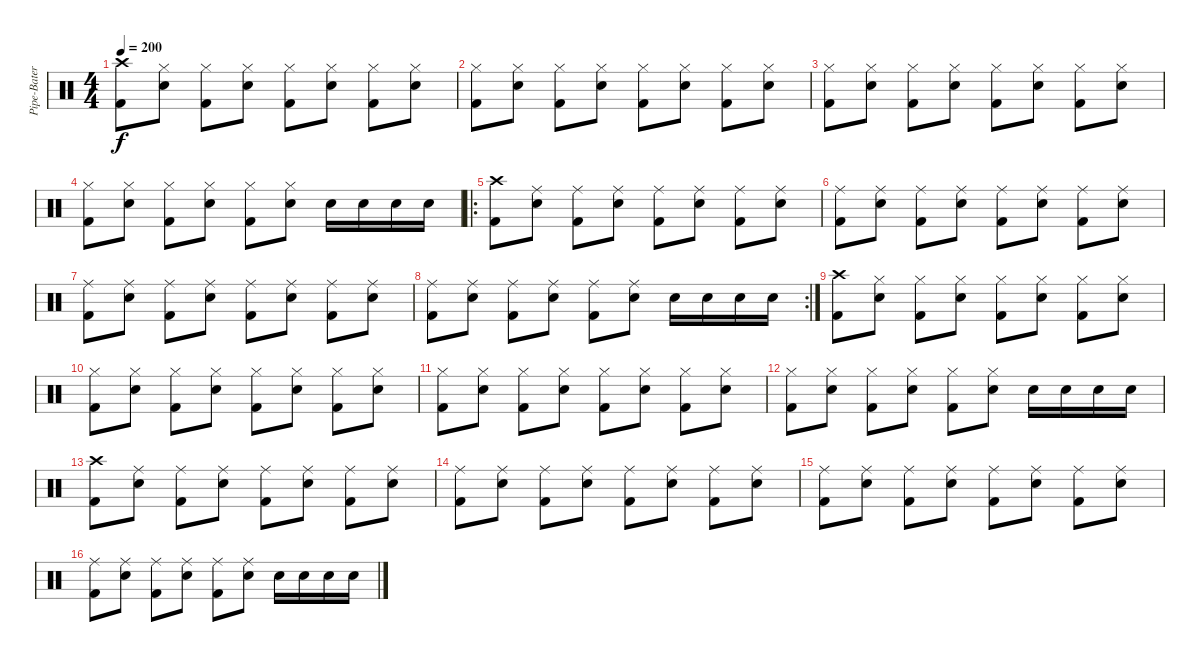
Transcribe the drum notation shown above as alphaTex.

\track ("Pipe-Bateria" "Pipe-Bater") {instrument percussion}
\staff {score}
\articulation defaults
\ts (4 4)
\tempo 200
\clef neutral
\ks c
("Kick (hit) 2" "Crash high (hit)").8{dy f} ("Snare (hit) 2" "Hi-Hat (closed)").8 ("Kick (hit) 2" "Hi-Hat (closed)").8 ("Snare (hit) 2" "Hi-Hat (closed)").8 ("Kick (hit) 2" "Hi-Hat (closed)").8 ("Snare (hit) 2" "Hi-Hat (closed)").8 ("Kick (hit) 2" "Hi-Hat (closed)").8 ("Snare (hit) 2" "Hi-Hat (closed)").8 |
("Kick (hit) 2" "Hi-Hat (closed)").8 ("Snare (hit) 2" "Hi-Hat (closed)").8 ("Kick (hit) 2" "Hi-Hat (closed)").8 ("Snare (hit) 2" "Hi-Hat (closed)").8 ("Kick (hit) 2" "Hi-Hat (closed)").8 ("Snare (hit) 2" "Hi-Hat (closed)").8 ("Kick (hit) 2" "Hi-Hat (closed)").8 ("Snare (hit) 2" "Hi-Hat (closed)").8 |
("Kick (hit) 2" "Hi-Hat (closed)").8 ("Snare (hit) 2" "Hi-Hat (closed)").8 ("Kick (hit) 2" "Hi-Hat (closed)").8 ("Snare (hit) 2" "Hi-Hat (closed)").8 ("Kick (hit) 2" "Hi-Hat (closed)").8 ("Snare (hit) 2" "Hi-Hat (closed)").8 ("Kick (hit) 2" "Hi-Hat (closed)").8 ("Snare (hit) 2" "Hi-Hat (closed)").8 |
("Kick (hit) 2" "Hi-Hat (closed)").8 ("Snare (hit) 2" "Hi-Hat (closed)").8 ("Kick (hit) 2" "Hi-Hat (closed)").8 ("Snare (hit) 2" "Hi-Hat (closed)").8 ("Kick (hit) 2" "Hi-Hat (closed)").8 ("Snare (hit) 2" "Hi-Hat (closed)").8 "Snare (hit) 2".16 "Snare (hit) 2".16 "Snare (hit) 2".16 "Snare (hit) 2".16 |
\ro
("Kick (hit) 2" "Crash high (hit)").8 ("Snare (hit) 2" "Ride (middle)").8 ("Kick (hit) 2" "Ride (middle)").8 ("Snare (hit) 2" "Ride (middle)").8 ("Kick (hit) 2" "Ride (middle)").8 ("Snare (hit) 2" "Ride (middle)").8 ("Kick (hit) 2" "Ride (middle)").8 ("Snare (hit) 2" "Ride (middle)").8 |
("Kick (hit) 2" "Ride (middle)").8 ("Snare (hit) 2" "Ride (middle)").8 ("Kick (hit) 2" "Ride (middle)").8 ("Snare (hit) 2" "Ride (middle)").8 ("Kick (hit) 2" "Ride (middle)").8 ("Snare (hit) 2" "Ride (middle)").8 ("Kick (hit) 2" "Ride (middle)").8 ("Snare (hit) 2" "Ride (middle)").8 |
("Kick (hit) 2" "Ride (middle)").8 ("Snare (hit) 2" "Ride (middle)").8 ("Kick (hit) 2" "Ride (middle)").8 ("Snare (hit) 2" "Ride (middle)").8 ("Kick (hit) 2" "Ride (middle)").8 ("Snare (hit) 2" "Ride (middle)").8 ("Kick (hit) 2" "Ride (middle)").8 ("Snare (hit) 2" "Ride (middle)").8 |
\rc 2
("Kick (hit) 2" "Ride (middle)").8 ("Snare (hit) 2" "Ride (middle)").8 ("Kick (hit) 2" "Ride (middle)").8 ("Snare (hit) 2" "Ride (middle)").8 ("Kick (hit) 2" "Ride (middle)").8 ("Snare (hit) 2" "Ride (middle)").8 "Snare (hit) 2".16 "Snare (hit) 2".16 "Snare (hit) 2".16 "Snare (hit) 2".16 |
("Kick (hit) 2" "Crash high (hit)").8 ("Snare (hit) 2" "Hi-Hat (closed)").8 ("Kick (hit) 2" "Hi-Hat (closed)").8 ("Snare (hit) 2" "Hi-Hat (closed)").8 ("Kick (hit) 2" "Hi-Hat (closed)").8 ("Snare (hit) 2" "Hi-Hat (closed)").8 ("Kick (hit) 2" "Hi-Hat (closed)").8 ("Snare (hit) 2" "Hi-Hat (closed)").8 |
("Kick (hit) 2" "Hi-Hat (closed)").8 ("Snare (hit) 2" "Hi-Hat (closed)").8 ("Kick (hit) 2" "Hi-Hat (closed)").8 ("Snare (hit) 2" "Hi-Hat (closed)").8 ("Kick (hit) 2" "Hi-Hat (closed)").8 ("Snare (hit) 2" "Hi-Hat (closed)").8 ("Kick (hit) 2" "Hi-Hat (closed)").8 ("Snare (hit) 2" "Hi-Hat (closed)").8 |
("Kick (hit) 2" "Hi-Hat (closed)").8 ("Snare (hit) 2" "Hi-Hat (closed)").8 ("Kick (hit) 2" "Hi-Hat (closed)").8 ("Snare (hit) 2" "Hi-Hat (closed)").8 ("Kick (hit) 2" "Hi-Hat (closed)").8 ("Snare (hit) 2" "Hi-Hat (closed)").8 ("Kick (hit) 2" "Hi-Hat (closed)").8 ("Snare (hit) 2" "Hi-Hat (closed)").8 |
("Kick (hit) 2" "Hi-Hat (closed)").8 ("Snare (hit) 2" "Hi-Hat (closed)").8 ("Kick (hit) 2" "Hi-Hat (closed)").8 ("Snare (hit) 2" "Hi-Hat (closed)").8 ("Kick (hit) 2" "Hi-Hat (closed)").8 ("Snare (hit) 2" "Hi-Hat (closed)").8 "Snare (hit) 2".16 "Snare (hit) 2".16 "Snare (hit) 2".16 "Snare (hit) 2".16 |
("Kick (hit) 2" "Crash high (hit)").8 ("Snare (hit) 2" "Ride (middle)").8 ("Kick (hit) 2" "Ride (middle)").8 ("Snare (hit) 2" "Ride (middle)").8 ("Kick (hit) 2" "Ride (middle)").8 ("Snare (hit) 2" "Ride (middle)").8 ("Kick (hit) 2" "Ride (middle)").8 ("Snare (hit) 2" "Ride (middle)").8 |
("Kick (hit) 2" "Ride (middle)").8 ("Snare (hit) 2" "Ride (middle)").8 ("Kick (hit) 2" "Ride (middle)").8 ("Snare (hit) 2" "Ride (middle)").8 ("Kick (hit) 2" "Ride (middle)").8 ("Snare (hit) 2" "Ride (middle)").8 ("Kick (hit) 2" "Ride (middle)").8 ("Snare (hit) 2" "Ride (middle)").8 |
("Kick (hit) 2" "Ride (middle)").8 ("Snare (hit) 2" "Ride (middle)").8 ("Kick (hit) 2" "Ride (middle)").8 ("Snare (hit) 2" "Ride (middle)").8 ("Kick (hit) 2" "Ride (middle)").8 ("Snare (hit) 2" "Ride (middle)").8 ("Kick (hit) 2" "Ride (middle)").8 ("Snare (hit) 2" "Ride (middle)").8 |
("Kick (hit) 2" "Ride (middle)").8 ("Snare (hit) 2" "Ride (middle)").8 ("Kick (hit) 2" "Ride (middle)").8 ("Snare (hit) 2" "Ride (middle)").8 ("Kick (hit) 2" "Ride (middle)").8 ("Snare (hit) 2" "Ride (middle)").8 "Snare (hit) 2".16 "Snare (hit) 2".16 "Snare (hit) 2".16 "Snare (hit) 2".16
